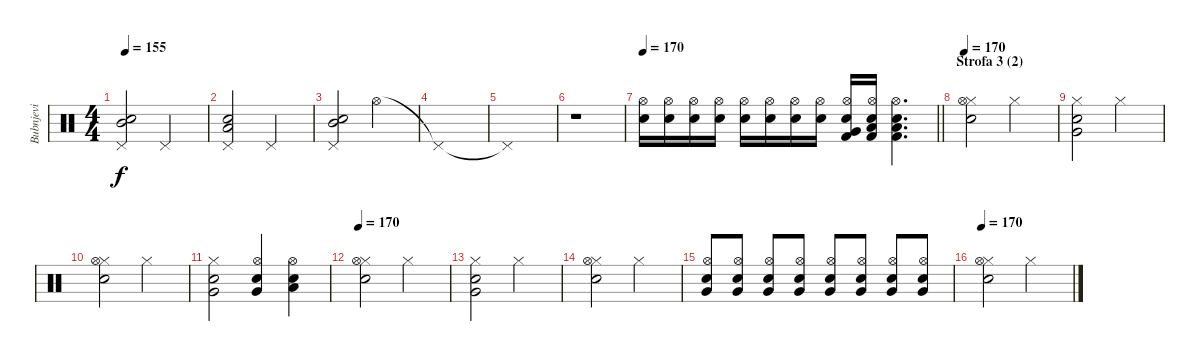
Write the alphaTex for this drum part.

\track ("Bubnjevi" "Bubnjevi") {instrument percussion}
\staff {score}
\articulation defaults
\ts (4 4)
\tempo 155
\clef neutral
\ks c
("Pedal Hi-Hat (hit)" "Mid Tom (hit)" "Electric Snare (hit)").2{dy f} "Pedal Hi-Hat (hit)".2 |
("Pedal Hi-Hat (hit)" "Low Tom (hit)" "Electric Snare (hit)").2 "Pedal Hi-Hat (hit)".2 |
("Pedal Hi-Hat (hit)" "Mid Tom (hit)" "Electric Snare (hit)").2 "Hi-Hat (open)".2 |
"Pedal Hi-Hat (hit)"{t}.1 |
"Pedal Hi-Hat (hit)"{t}.1 |
r.1 |
\tempo 170
\barLineRight lightlight
("Hi-Hat (open)" "Electric Snare (hit)").16 ("Hi-Hat (open)" "Electric Snare (hit)").16 ("Hi-Hat (open)" "Electric Snare (hit)").16 ("Hi-Hat (open)" "Electric Snare (hit)").16 ("Hi-Hat (open)" "Electric Snare (hit)").16 ("Hi-Hat (open)" "Electric Snare (hit)").16 ("Hi-Hat (open)" "Electric Snare (hit)").16 ("Hi-Hat (open)" "Electric Snare (hit)").16 ("Hi-Hat (open)" "Kick (hit) 2" "Very Low Tom (hit)" "Electric Snare (hit)").16 ("Hi-Hat (open)" "Kick (hit) 2" "Low Tom (hit)" "Electric Snare (hit)").16 ("Hi-Hat (open)" "Kick (hit) 2" "Low Floor Tom (hit)" "Electric Snare (hit)").4{d} |
\section ("" "Strofa 3 (2)")
\tempo 170
("Hi-Hat (closed)" "Hi-Hat (open)" "Electric Snare (hit)").2 "Hi-Hat (closed)".2 |
("Hi-Hat (closed)" "Very Low Tom (hit)" "Electric Snare (hit)").2 "Hi-Hat (closed)".2 |
("Hi-Hat (closed)" "Hi-Hat (open)" "Electric Snare (hit)").2 "Hi-Hat (closed)".2 |
("Hi-Hat (closed)" "Very Low Tom (hit)" "Electric Snare (hit)").2 ("Hi-Hat (open)" "Very Low Tom (hit)" "Electric Snare (hit)").4 ("Hi-Hat (open)" "Low Tom (hit)" "Electric Snare (hit)").4 |
\tempo 170
("Hi-Hat (closed)" "Hi-Hat (open)" "Electric Snare (hit)").2 "Hi-Hat (closed)".2 |
("Hi-Hat (closed)" "Very Low Tom (hit)" "Electric Snare (hit)").2 "Hi-Hat (closed)".2 |
("Hi-Hat (closed)" "Hi-Hat (open)" "Electric Snare (hit)").2 "Hi-Hat (closed)".2 |
("Hi-Hat (open)" "Very Low Tom (hit)" "Electric Snare (hit)").8 ("Hi-Hat (open)" "Very Low Tom (hit)" "Electric Snare (hit)").8 ("Hi-Hat (open)" "Very Low Tom (hit)" "Electric Snare (hit)").8 ("Hi-Hat (open)" "Very Low Tom (hit)" "Electric Snare (hit)").8 ("Hi-Hat (open)" "Very Low Tom (hit)" "Electric Snare (hit)").8 ("Hi-Hat (open)" "Very Low Tom (hit)" "Electric Snare (hit)").8 ("Hi-Hat (open)" "Very Low Tom (hit)" "Electric Snare (hit)").8 ("Hi-Hat (open)" "Very Low Tom (hit)" "Electric Snare (hit)").8 |
\tempo 170
("Hi-Hat (closed)" "Hi-Hat (open)" "Electric Snare (hit)").2 "Hi-Hat (closed)".2
